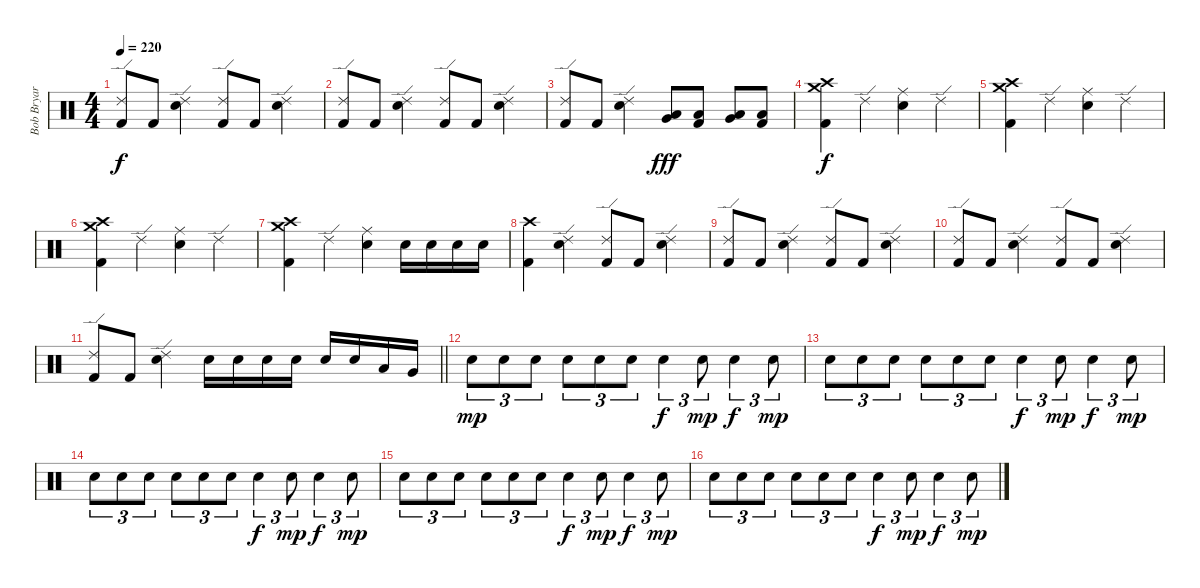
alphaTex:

\track ("Bob Bryar" "Bob Bryar") {instrument percussion}
\staff {score}
\articulation defaults
\ts (4 4)
\tempo 220
\clef neutral
\ks c
("Ride (edge) 2" "Kick (hit) 2").8{dy f} "Kick (hit) 2".8 ("Ride (edge) 2" "Electric Snare (hit)").4 ("Ride (edge) 2" "Kick (hit) 2").8 "Kick (hit) 2".8 ("Ride (edge) 2" "Electric Snare (hit)").4 |
("Ride (edge) 2" "Kick (hit) 2").8 "Kick (hit) 2".8 ("Ride (edge) 2" "Electric Snare (hit)").4 ("Ride (edge) 2" "Kick (hit) 2").8 "Kick (hit) 2".8 ("Ride (edge) 2" "Electric Snare (hit)").4 |
("Ride (edge) 2" "Kick (hit) 2").8 "Kick (hit) 2".8 ("Ride (edge) 2" "Electric Snare (hit)").4 ("Low Tom (hit)" "Very Low Tom (hit)").8{dy fff} ("Low Floor Tom (hit)" "Kick (hit) 2").8 ("Low Tom (hit)" "Very Low Tom (hit)").8 ("Low Floor Tom (hit)" "Kick (hit) 2").8 |
("Crash high (hit)" "Crash medium (hit)" "Kick (hit) 2").4{dy f} "Ride (edge) 2".4 ("Ride (middle)" "Electric Snare (hit)").4 "Ride (edge) 2".4 |
("Crash high (hit)" "Crash medium (hit)" "Kick (hit) 2").4 "Ride (edge) 2".4 ("Ride (middle)" "Electric Snare (hit)").4 "Ride (edge) 2".4 |
("Crash high (hit)" "Crash medium (hit)" "Kick (hit) 2").4 "Ride (edge) 2".4 ("Ride (middle)" "Electric Snare (hit)").4 "Ride (edge) 2".4 |
("Crash high (hit)" "Crash medium (hit)" "Kick (hit) 2").4 "Ride (edge) 2".4 ("Ride (middle)" "Electric Snare (hit)").4 "Electric Snare (hit)".16 "Electric Snare (hit)".16 "Electric Snare (hit)".16 "Electric Snare (hit)".16 |
("Crash high (hit)" "Kick (hit) 2").4 ("Ride (edge) 2" "Electric Snare (hit)").4 ("Ride (edge) 2" "Kick (hit) 2").8 "Kick (hit) 2".8 ("Ride (edge) 2" "Electric Snare (hit)").4 |
("Ride (edge) 2" "Kick (hit) 2").8 "Kick (hit) 2".8 ("Ride (edge) 2" "Electric Snare (hit)").4 ("Ride (edge) 2" "Kick (hit) 2").8 "Kick (hit) 2".8 ("Ride (edge) 2" "Electric Snare (hit)").4 |
("Ride (edge) 2" "Kick (hit) 2").8 "Kick (hit) 2".8 ("Ride (edge) 2" "Electric Snare (hit)").4 ("Ride (edge) 2" "Kick (hit) 2").8 "Kick (hit) 2".8 ("Ride (edge) 2" "Electric Snare (hit)").4 |
\barLineRight lightlight
("Ride (edge) 2" "Kick (hit) 2").8 "Kick (hit) 2".8 ("Ride (edge) 2" "Electric Snare (hit)").4 "Snare (hit) 2".16 "Snare (hit) 2".16 "Snare (hit) 2".16 "Snare (hit) 2".16 "Snare (hit) 2".16 "Snare (hit) 2".16 "Low Floor Tom (hit)".16 "Very Low Tom (hit)".16 |
"Snare (hit) 2".8{tu (3 2) dy mp} "Snare (hit) 2".8{tu (3 2)} "Snare (hit) 2".8{tu (3 2)} "Snare (hit) 2".8{tu (3 2)} "Snare (hit) 2".8{tu (3 2)} "Snare (hit) 2".8{tu (3 2)} "Electric Snare (hit)".4{tu (3 2) dy f} "Snare (hit) 2".8{tu (3 2) dy mp} "Electric Snare (hit)".4{tu (3 2) dy f} "Snare (hit) 2".8{tu (3 2) dy mp} |
"Snare (hit) 2".8{tu (3 2)} "Snare (hit) 2".8{tu (3 2)} "Snare (hit) 2".8{tu (3 2)} "Snare (hit) 2".8{tu (3 2)} "Snare (hit) 2".8{tu (3 2)} "Snare (hit) 2".8{tu (3 2)} "Electric Snare (hit)".4{tu (3 2) dy f} "Snare (hit) 2".8{tu (3 2) dy mp} "Electric Snare (hit)".4{tu (3 2) dy f} "Snare (hit) 2".8{tu (3 2) dy mp} |
"Snare (hit) 2".8{tu (3 2)} "Snare (hit) 2".8{tu (3 2)} "Snare (hit) 2".8{tu (3 2)} "Snare (hit) 2".8{tu (3 2)} "Snare (hit) 2".8{tu (3 2)} "Snare (hit) 2".8{tu (3 2)} "Electric Snare (hit)".4{tu (3 2) dy f} "Snare (hit) 2".8{tu (3 2) dy mp} "Electric Snare (hit)".4{tu (3 2) dy f} "Snare (hit) 2".8{tu (3 2) dy mp} |
"Snare (hit) 2".8{tu (3 2)} "Snare (hit) 2".8{tu (3 2)} "Snare (hit) 2".8{tu (3 2)} "Snare (hit) 2".8{tu (3 2)} "Snare (hit) 2".8{tu (3 2)} "Snare (hit) 2".8{tu (3 2)} "Electric Snare (hit)".4{tu (3 2) dy f} "Snare (hit) 2".8{tu (3 2) dy mp} "Electric Snare (hit)".4{tu (3 2) dy f} "Snare (hit) 2".8{tu (3 2) dy mp} |
"Snare (hit) 2".8{tu (3 2)} "Snare (hit) 2".8{tu (3 2)} "Snare (hit) 2".8{tu (3 2)} "Snare (hit) 2".8{tu (3 2)} "Snare (hit) 2".8{tu (3 2)} "Snare (hit) 2".8{tu (3 2)} "Electric Snare (hit)".4{tu (3 2) dy f} "Snare (hit) 2".8{tu (3 2) dy mp} "Electric Snare (hit)".4{tu (3 2) dy f} "Snare (hit) 2".8{tu (3 2) dy mp}
